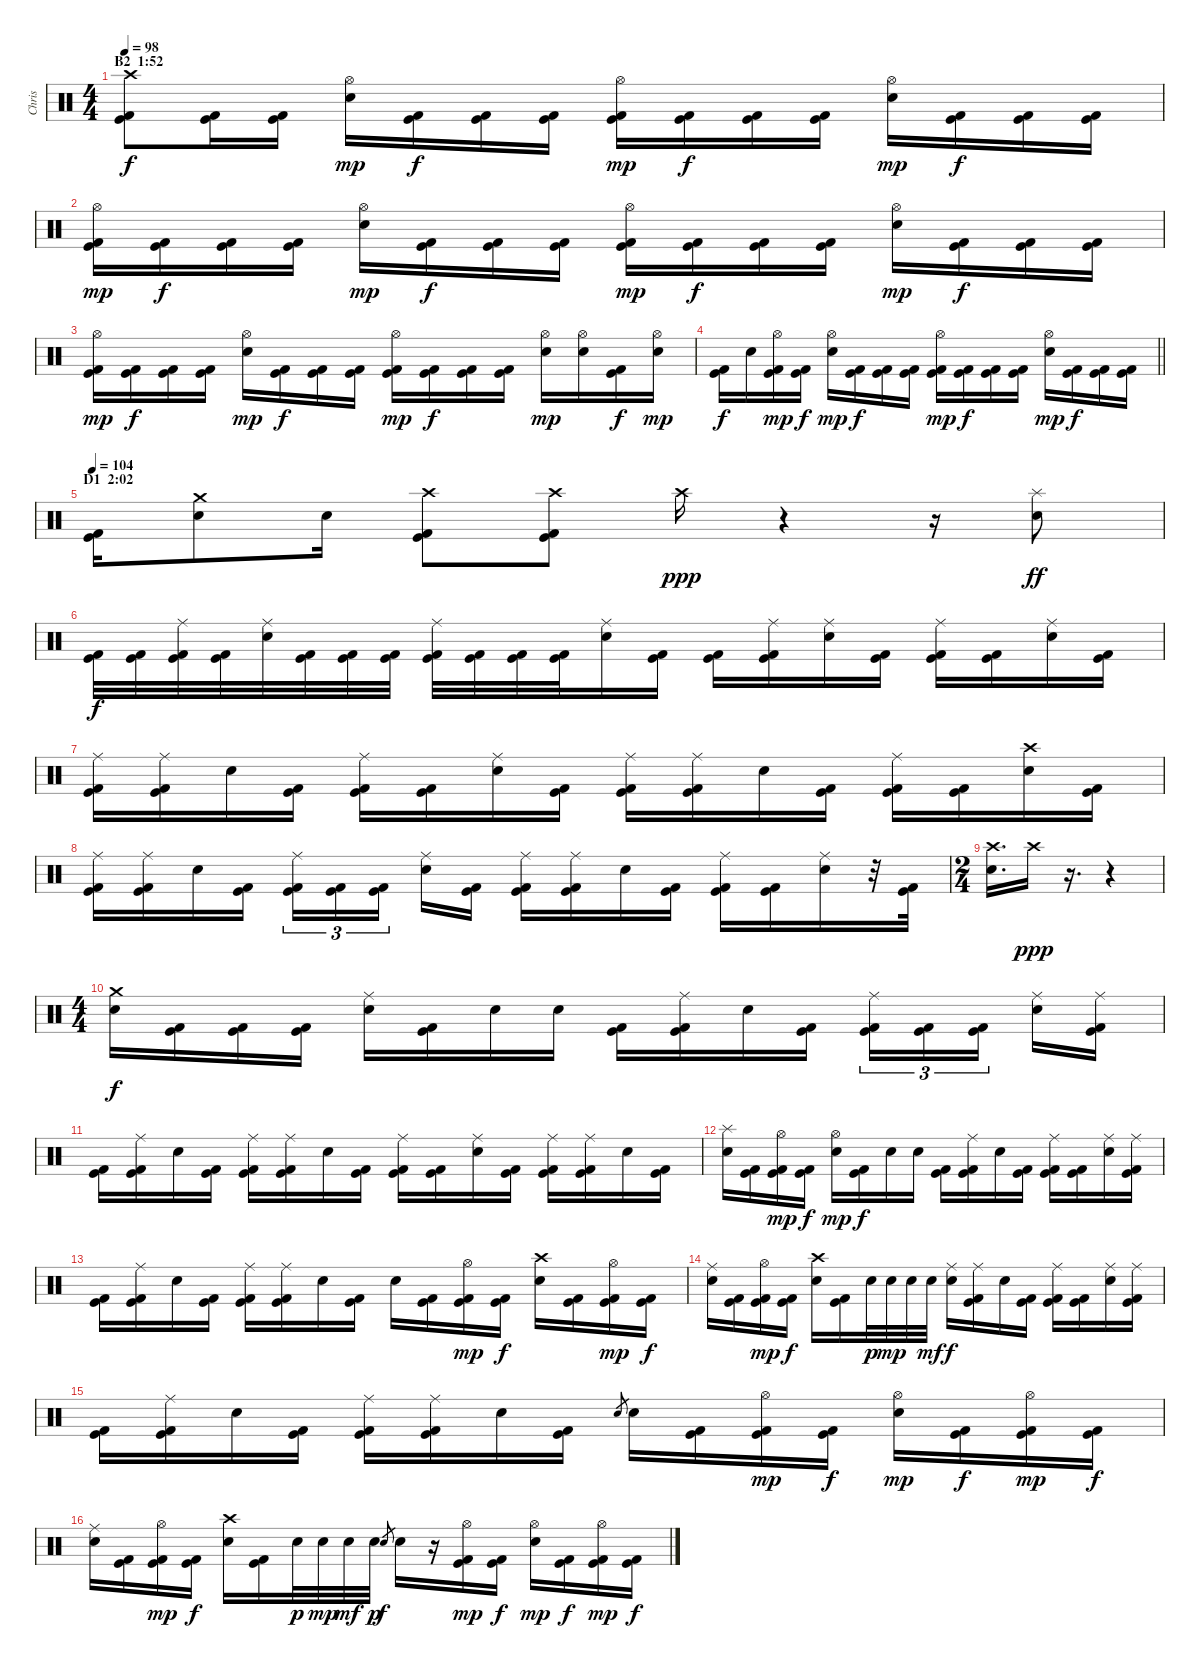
\track ("Chris" "Chris") {instrument percussion}
\staff {score}
\articulation defaults
\ts (4 4)
\section ("" "B2  1:52")
\tempo 98
\clef neutral
\ks c
("Crash high (hit)" "Kick (hit)" "Kick (hit) 2").8{dy f} ("Kick (hit)" "Kick (hit) 2").16 ("Kick (hit)" "Kick (hit) 2").16 ("Hi-Hat (open)" "Electric Snare (hit)").16{dy mp} ("Kick (hit)" "Kick (hit) 2").16{dy f} ("Kick (hit)" "Kick (hit) 2").16 ("Kick (hit)" "Kick (hit) 2").16 ("Hi-Hat (open)" "Kick (hit)" "Kick (hit) 2").16{dy mp} ("Kick (hit)" "Kick (hit) 2").16{dy f} ("Kick (hit)" "Kick (hit) 2").16 ("Kick (hit)" "Kick (hit) 2").16 ("Hi-Hat (open)" "Electric Snare (hit)").16{dy mp} ("Kick (hit)" "Kick (hit) 2").16{dy f} ("Kick (hit)" "Kick (hit) 2").16 ("Kick (hit)" "Kick (hit) 2").16 |
("Hi-Hat (open)" "Kick (hit)" "Kick (hit) 2").16{dy mp} ("Kick (hit)" "Kick (hit) 2").16{dy f} ("Kick (hit)" "Kick (hit) 2").16 ("Kick (hit)" "Kick (hit) 2").16 ("Hi-Hat (open)" "Electric Snare (hit)").16{dy mp} ("Kick (hit)" "Kick (hit) 2").16{dy f} ("Kick (hit)" "Kick (hit) 2").16 ("Kick (hit)" "Kick (hit) 2").16 ("Hi-Hat (open)" "Kick (hit)" "Kick (hit) 2").16{dy mp} ("Kick (hit)" "Kick (hit) 2").16{dy f} ("Kick (hit)" "Kick (hit) 2").16 ("Kick (hit)" "Kick (hit) 2").16 ("Hi-Hat (open)" "Electric Snare (hit)").16{dy mp} ("Kick (hit)" "Kick (hit) 2").16{dy f} ("Kick (hit)" "Kick (hit) 2").16 ("Kick (hit)" "Kick (hit) 2").16 |
("Hi-Hat (open)" "Kick (hit)" "Kick (hit) 2").16{dy mp} ("Kick (hit)" "Kick (hit) 2").16{dy f} ("Kick (hit)" "Kick (hit) 2").16 ("Kick (hit)" "Kick (hit) 2").16 ("Hi-Hat (open)" "Electric Snare (hit)").16{dy mp} ("Kick (hit)" "Kick (hit) 2").16{dy f} ("Kick (hit)" "Kick (hit) 2").16 ("Kick (hit)" "Kick (hit) 2").16 ("Hi-Hat (open)" "Kick (hit)" "Kick (hit) 2").16{dy mp} ("Kick (hit)" "Kick (hit) 2").16{dy f} ("Kick (hit)" "Kick (hit) 2").16 ("Kick (hit)" "Kick (hit) 2").16 ("Hi-Hat (open)" "Electric Snare (hit)").16{dy mp} ("Hi-Hat (open)" "Electric Snare (hit)").16 ("Kick (hit)" "Kick (hit) 2").16{dy f} ("Hi-Hat (open)" "Electric Snare (hit)").16{dy mp} |
\barLineRight lightlight
("Kick (hit)" "Kick (hit) 2").16{dy f} "Electric Snare (hit)".16 ("Hi-Hat (open)" "Kick (hit)" "Kick (hit) 2").16{dy mp} ("Kick (hit)" "Kick (hit) 2").16{dy f} ("Hi-Hat (open)" "Electric Snare (hit)").16{dy mp} ("Kick (hit)" "Kick (hit) 2").16{dy f} ("Kick (hit)" "Kick (hit) 2").16 ("Kick (hit)" "Kick (hit) 2").16 ("Hi-Hat (open)" "Kick (hit)" "Kick (hit) 2").16{dy mp} ("Kick (hit)" "Kick (hit) 2").16{dy f} ("Kick (hit)" "Kick (hit) 2").16 ("Kick (hit)" "Kick (hit) 2").16 ("Hi-Hat (open)" "Electric Snare (hit)").16{dy mp} ("Kick (hit)" "Kick (hit) 2").16{dy f} ("Kick (hit)" "Kick (hit) 2").16 ("Kick (hit)" "Kick (hit) 2").16 |
\section ("" "D1  2:02")
\tempo 104
("Kick (hit)" "Kick (hit) 2").16 ("Crash medium (hit)" "Electric Snare (hit)").8 "Electric Snare (hit)".16 ("Crash high (hit)" "Kick (hit)" "Kick (hit) 2").8 ("Crash high (hit)" "Kick (hit)" "Kick (hit) 2").8 "Crash high (hit)".16{dy ppp} r.4 r.16 ("Splash (hit)" "Electric Snare (hit)").8{dy ff} |
("Kick (hit)" "Kick (hit) 2").32{dy f} ("Kick (hit)" "Kick (hit) 2").32 ("Ride (middle)" "Kick (hit)" "Kick (hit) 2").32 ("Kick (hit)" "Kick (hit) 2").32 ("Ride (middle)" "Electric Snare (hit)").32 ("Kick (hit)" "Kick (hit) 2").32 ("Kick (hit)" "Kick (hit) 2").32 ("Kick (hit)" "Kick (hit) 2").32 ("Ride (middle)" "Kick (hit)" "Kick (hit) 2").32 ("Kick (hit)" "Kick (hit) 2").32 ("Kick (hit)" "Kick (hit) 2").32 ("Kick (hit)" "Kick (hit) 2").32 ("Ride (middle)" "Electric Snare (hit)").16 ("Kick (hit)" "Kick (hit) 2").16 ("Kick (hit)" "Kick (hit) 2").16 ("Ride (middle)" "Kick (hit)" "Kick (hit) 2").16 ("Ride (middle)" "Electric Snare (hit)").16 ("Kick (hit)" "Kick (hit) 2").16 ("Ride (middle)" "Kick (hit)" "Kick (hit) 2").16 ("Kick (hit)" "Kick (hit) 2").16 ("Ride (middle)" "Electric Snare (hit)").16 ("Kick (hit)" "Kick (hit) 2").16 |
("Ride (middle)" "Kick (hit)" "Kick (hit) 2").16 ("Ride (middle)" "Kick (hit)" "Kick (hit) 2").16 "Electric Snare (hit)".16 ("Kick (hit)" "Kick (hit) 2").16 ("Ride (middle)" "Kick (hit)" "Kick (hit) 2").16 ("Kick (hit)" "Kick (hit) 2").16 ("Ride (middle)" "Electric Snare (hit)").16 ("Kick (hit)" "Kick (hit) 2").16 ("Ride (middle)" "Kick (hit)" "Kick (hit) 2").16 ("Ride (middle)" "Kick (hit)" "Kick (hit) 2").16 "Electric Snare (hit)".16 ("Kick (hit)" "Kick (hit) 2").16 ("Ride (middle)" "Kick (hit)" "Kick (hit) 2").16 ("Kick (hit)" "Kick (hit) 2").16 ("Crash high (hit)" "Electric Snare (hit)").16 ("Kick (hit)" "Kick (hit) 2").16 |
("Ride (middle)" "Kick (hit)" "Kick (hit) 2").16 ("Ride (middle)" "Kick (hit)" "Kick (hit) 2").16 "Electric Snare (hit)".16 ("Kick (hit)" "Kick (hit) 2").16 ("Ride (middle)" "Kick (hit)" "Kick (hit) 2").16{tu (3 2)} ("Kick (hit)" "Kick (hit) 2").16{tu (3 2)} ("Kick (hit)" "Kick (hit) 2").16{tu (3 2) beam splitsecondary} ("Ride (middle)" "Electric Snare (hit)").16 ("Kick (hit)" "Kick (hit) 2").16 ("Ride (middle)" "Kick (hit)" "Kick (hit) 2").16 ("Ride (middle)" "Kick (hit)" "Kick (hit) 2").16 "Electric Snare (hit)".16 ("Kick (hit)" "Kick (hit) 2").16 ("Ride (middle)" "Kick (hit)" "Kick (hit) 2").16 ("Kick (hit)" "Kick (hit) 2").16 ("Ride (middle)" "Electric Snare (hit)").16 r.32 ("Kick (hit)" "Kick (hit) 2").32 |
\ts (2 4)
("Crash high (hit)" "Electric Snare (hit)").16{d} "Crash high (hit)".16{dy ppp} r.16{d} r.4 |
\ts (4 4)
("Crash medium (hit)" "Electric Snare (hit)").16{dy f} ("Kick (hit)" "Kick (hit) 2").16 ("Kick (hit)" "Kick (hit) 2").16 ("Kick (hit)" "Kick (hit) 2").16 ("Ride (middle)" "Electric Snare (hit)").16 ("Kick (hit)" "Kick (hit) 2").16 "Electric Snare (hit)".16 "Electric Snare (hit)".16 ("Kick (hit)" "Kick (hit) 2").16 ("Ride (middle)" "Kick (hit)" "Kick (hit) 2").16 "Electric Snare (hit)".16 ("Kick (hit)" "Kick (hit) 2").16 ("Ride (middle)" "Kick (hit)" "Kick (hit) 2").16{tu (3 2)} ("Kick (hit)" "Kick (hit) 2").16{tu (3 2)} ("Kick (hit)" "Kick (hit) 2").16{tu (3 2) beam splitsecondary} ("Ride (middle)" "Electric Snare (hit)").16 ("Ride (middle)" "Kick (hit)" "Kick (hit) 2").16 |
("Kick (hit)" "Kick (hit) 2").16 ("Ride (middle)" "Kick (hit)" "Kick (hit) 2").16 "Electric Snare (hit)".16 ("Kick (hit)" "Kick (hit) 2").16 ("Ride (middle)" "Kick (hit)" "Kick (hit) 2").16 ("Ride (middle)" "Kick (hit)" "Kick (hit) 2").16 "Electric Snare (hit)".16 ("Kick (hit)" "Kick (hit) 2").16 ("Ride (middle)" "Kick (hit)" "Kick (hit) 2").16 ("Kick (hit)" "Kick (hit) 2").16 ("Ride (middle)" "Electric Snare (hit)").16 ("Kick (hit)" "Kick (hit) 2").16 ("Ride (middle)" "Kick (hit)" "Kick (hit) 2").16 ("Ride (middle)" "Kick (hit)" "Kick (hit) 2").16 "Electric Snare (hit)".16 ("Kick (hit)" "Kick (hit) 2").16 |
("Splash (hit)" "Electric Snare (hit)").16 ("Kick (hit)" "Kick (hit) 2").16 ("Hi-Hat (open)" "Kick (hit)" "Kick (hit) 2").16{dy mp} ("Kick (hit)" "Kick (hit) 2").16{dy f} ("Hi-Hat (open)" "Electric Snare (hit)").16{dy mp} ("Kick (hit)" "Kick (hit) 2").16{dy f} "Electric Snare (hit)".16 "Electric Snare (hit)".16 ("Kick (hit)" "Kick (hit) 2").16 ("Ride (middle)" "Kick (hit)" "Kick (hit) 2").16 "Electric Snare (hit)".16 ("Kick (hit)" "Kick (hit) 2").16 ("Ride (middle)" "Kick (hit)" "Kick (hit) 2").16 ("Kick (hit)" "Kick (hit) 2").16 ("Ride (middle)" "Electric Snare (hit)").16 ("Ride (middle)" "Kick (hit)" "Kick (hit) 2").16 |
("Kick (hit)" "Kick (hit) 2").16 ("Ride (middle)" "Kick (hit)" "Kick (hit) 2").16 "Electric Snare (hit)".16 ("Kick (hit)" "Kick (hit) 2").16 ("Ride (middle)" "Kick (hit)" "Kick (hit) 2").16 ("Ride (middle)" "Kick (hit)" "Kick (hit) 2").16 "Electric Snare (hit)".16 ("Kick (hit)" "Kick (hit) 2").16 "Electric Snare (hit)".16 ("Kick (hit)" "Kick (hit) 2").16 ("Hi-Hat (open)" "Kick (hit)" "Kick (hit) 2").16{dy mp} ("Kick (hit)" "Kick (hit) 2").16{dy f} ("Crash high (hit)" "Electric Snare (hit)").16 ("Kick (hit)" "Kick (hit) 2").16 ("Hi-Hat (open)" "Kick (hit)" "Kick (hit) 2").16{dy mp} ("Kick (hit)" "Kick (hit) 2").16{dy f} |
("Ride (middle)" "Electric Snare (hit)").16 ("Kick (hit)" "Kick (hit) 2").16 ("Hi-Hat (open)" "Kick (hit)" "Kick (hit) 2").16{dy mp} ("Kick (hit)" "Kick (hit) 2").16{dy f} ("Crash high (hit)" "Electric Snare (hit)").16 ("Kick (hit)" "Kick (hit) 2").16 "Electric Snare (hit)".32{dy p} "Electric Snare (hit)".32{dy mp} "Electric Snare (hit)".32 "Electric Snare (hit)".32{dy mf} ("Ride (middle)" "Electric Snare (hit)").16{dy f} ("Ride (middle)" "Kick (hit)" "Kick (hit) 2").16 "Electric Snare (hit)".16 ("Kick (hit)" "Kick (hit) 2").16 ("Ride (middle)" "Kick (hit)" "Kick (hit) 2").16 ("Kick (hit)" "Kick (hit) 2").16 ("Ride (middle)" "Electric Snare (hit)").16 ("Ride (middle)" "Kick (hit)" "Kick (hit) 2").16 |
("Kick (hit)" "Kick (hit) 2").16 ("Ride (middle)" "Kick (hit)" "Kick (hit) 2").16 "Electric Snare (hit)".16 ("Kick (hit)" "Kick (hit) 2").16 ("Ride (middle)" "Kick (hit)" "Kick (hit) 2").16 ("Ride (middle)" "Kick (hit)" "Kick (hit) 2").16 "Electric Snare (hit)".16 ("Kick (hit)" "Kick (hit) 2").16 "Electric Snare (hit)".8{gr} "Electric Snare (hit)".16 ("Kick (hit)" "Kick (hit) 2").16 ("Hi-Hat (open)" "Kick (hit)" "Kick (hit) 2").16{dy mp} ("Kick (hit)" "Kick (hit) 2").16{dy f} ("Hi-Hat (open)" "Electric Snare (hit)").16{dy mp} ("Kick (hit)" "Kick (hit) 2").16{dy f} ("Hi-Hat (open)" "Kick (hit)" "Kick (hit) 2").16{dy mp} ("Kick (hit)" "Kick (hit) 2").16{dy f} |
("Ride (middle)" "Electric Snare (hit)").16 ("Kick (hit)" "Kick (hit) 2").16 ("Hi-Hat (open)" "Kick (hit)" "Kick (hit) 2").16{dy mp} ("Kick (hit)" "Kick (hit) 2").16{dy f} ("Crash high (hit)" "Electric Snare (hit)").16 ("Kick (hit)" "Kick (hit) 2").16 "Electric Snare (hit)".32{dy p} "Electric Snare (hit)".32{dy mp} "Electric Snare (hit)".32{dy mf} "Electric Snare (hit)".32{dy p} "Electric Snare (hit)".8{gr dy f} "Electric Snare (hit)".16 r.16 ("Hi-Hat (open)" "Kick (hit)" "Kick (hit) 2").16{dy mp} ("Kick (hit)" "Kick (hit) 2").16{dy f} ("Hi-Hat (open)" "Electric Snare (hit)").16{dy mp} ("Kick (hit)" "Kick (hit) 2").16{dy f} ("Hi-Hat (open)" "Kick (hit)" "Kick (hit) 2").16{dy mp} ("Kick (hit)" "Kick (hit) 2").16{dy f}
